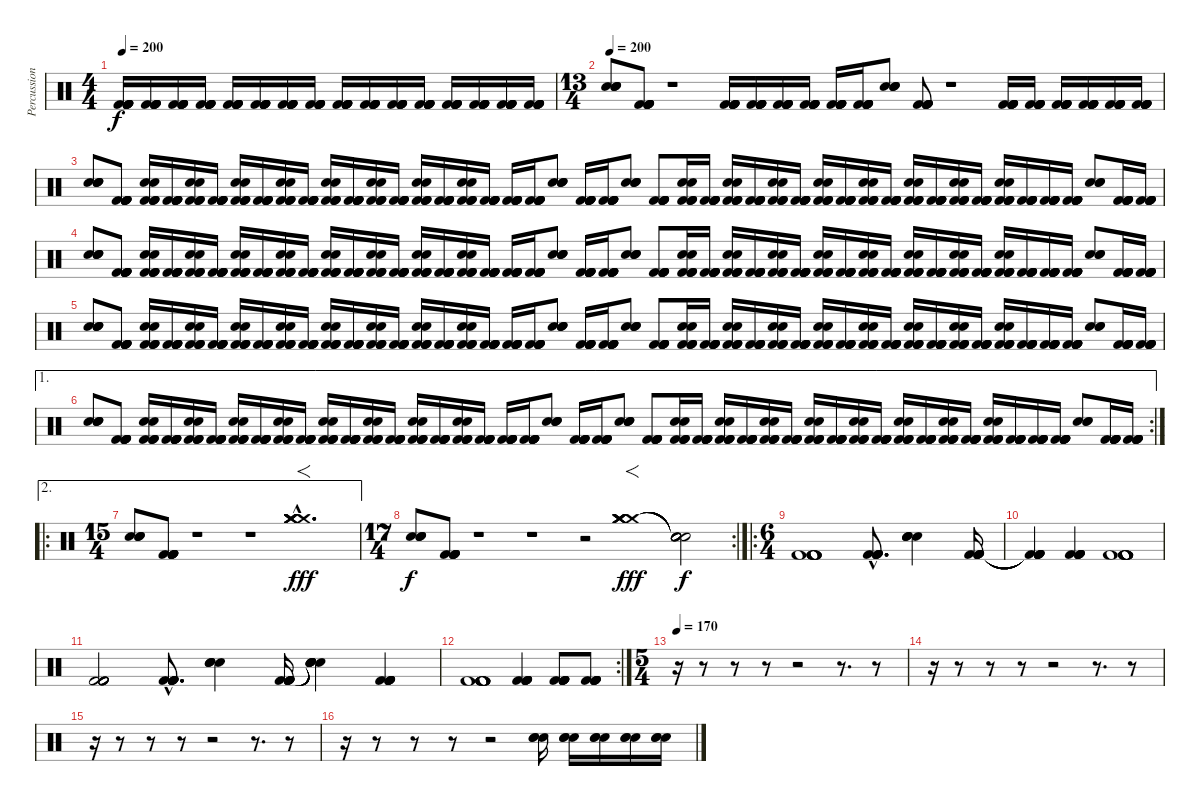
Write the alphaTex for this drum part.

\track ("Percussion" "Percussion") {instrument percussion}
\staff {score}
\articulation defaults
\ts (4 4)
\tempo 200
\clef neutral
\ks c
("Kick (hit) 2" "Kick (hit) 2" "Kick (hit) 2" "Kick (hit) 2" "Kick (hit) 2" "Kick (hit) 2").16{dy f} ("Kick (hit) 2" "Kick (hit) 2" "Kick (hit) 2" "Kick (hit) 2" "Kick (hit) 2" "Kick (hit) 2").16 ("Kick (hit) 2" "Kick (hit) 2" "Kick (hit) 2" "Kick (hit) 2" "Kick (hit) 2" "Kick (hit) 2").16 ("Kick (hit) 2" "Kick (hit) 2" "Kick (hit) 2" "Kick (hit) 2" "Kick (hit) 2" "Kick (hit) 2").16 ("Kick (hit) 2" "Kick (hit) 2" "Kick (hit) 2" "Kick (hit) 2" "Kick (hit) 2" "Kick (hit) 2").16 ("Kick (hit) 2" "Kick (hit) 2" "Kick (hit) 2" "Kick (hit) 2" "Kick (hit) 2" "Kick (hit) 2").16 ("Kick (hit) 2" "Kick (hit) 2" "Kick (hit) 2" "Kick (hit) 2" "Kick (hit) 2" "Kick (hit) 2").16 ("Kick (hit) 2" "Kick (hit) 2" "Kick (hit) 2" "Kick (hit) 2" "Kick (hit) 2" "Kick (hit) 2").16 ("Kick (hit) 2" "Kick (hit) 2" "Kick (hit) 2" "Kick (hit) 2" "Kick (hit) 2" "Kick (hit) 2").16 ("Kick (hit) 2" "Kick (hit) 2" "Kick (hit) 2" "Kick (hit) 2" "Kick (hit) 2" "Kick (hit) 2").16 ("Kick (hit) 2" "Kick (hit) 2" "Kick (hit) 2" "Kick (hit) 2" "Kick (hit) 2" "Kick (hit) 2").16 ("Kick (hit) 2" "Kick (hit) 2" "Kick (hit) 2" "Kick (hit) 2" "Kick (hit) 2" "Kick (hit) 2").16 ("Kick (hit) 2" "Kick (hit) 2" "Kick (hit) 2" "Kick (hit) 2" "Kick (hit) 2" "Kick (hit) 2").16 ("Kick (hit) 2" "Kick (hit) 2" "Kick (hit) 2" "Kick (hit) 2" "Kick (hit) 2" "Kick (hit) 2").16 ("Kick (hit) 2" "Kick (hit) 2" "Kick (hit) 2" "Kick (hit) 2" "Kick (hit) 2" "Kick (hit) 2").16 ("Kick (hit) 2" "Kick (hit) 2" "Kick (hit) 2" "Kick (hit) 2" "Kick (hit) 2" "Kick (hit) 2").16 |
\ts (13 4)
\tempo 200
("Snare (hit) 2" "Snare (hit) 2" "Snare (hit) 2" "Snare (hit) 2").8 ("Kick (hit) 2" "Kick (hit) 2" "Kick (hit) 2" "Kick (hit) 2" "Kick (hit) 2" "Kick (hit) 2").8 r.1 ("Kick (hit) 2" "Kick (hit) 2" "Kick (hit) 2" "Kick (hit) 2" "Kick (hit) 2" "Kick (hit) 2").16 ("Kick (hit) 2" "Kick (hit) 2" "Kick (hit) 2" "Kick (hit) 2" "Kick (hit) 2" "Kick (hit) 2").16 ("Kick (hit) 2" "Kick (hit) 2" "Kick (hit) 2" "Kick (hit) 2" "Kick (hit) 2" "Kick (hit) 2").16 ("Kick (hit) 2" "Kick (hit) 2" "Kick (hit) 2" "Kick (hit) 2" "Kick (hit) 2" "Kick (hit) 2").16 ("Kick (hit) 2" "Kick (hit) 2" "Kick (hit) 2" "Kick (hit) 2" "Kick (hit) 2" "Kick (hit) 2").16 ("Kick (hit) 2" "Kick (hit) 2" "Kick (hit) 2" "Kick (hit) 2" "Kick (hit) 2" "Kick (hit) 2").16 ("Snare (hit) 2" "Snare (hit) 2" "Snare (hit) 2" "Snare (hit) 2").8 ("Kick (hit) 2" "Kick (hit) 2" "Kick (hit) 2" "Kick (hit) 2" "Kick (hit) 2" "Kick (hit) 2").8 r.1 ("Kick (hit) 2" "Kick (hit) 2" "Kick (hit) 2" "Kick (hit) 2" "Kick (hit) 2" "Kick (hit) 2").16 ("Kick (hit) 2" "Kick (hit) 2" "Kick (hit) 2" "Kick (hit) 2" "Kick (hit) 2" "Kick (hit) 2").16 ("Kick (hit) 2" "Kick (hit) 2" "Kick (hit) 2" "Kick (hit) 2" "Kick (hit) 2" "Kick (hit) 2").16 ("Kick (hit) 2" "Kick (hit) 2" "Kick (hit) 2" "Kick (hit) 2" "Kick (hit) 2" "Kick (hit) 2").16 ("Kick (hit) 2" "Kick (hit) 2" "Kick (hit) 2" "Kick (hit) 2" "Kick (hit) 2" "Kick (hit) 2").16 ("Kick (hit) 2" "Kick (hit) 2" "Kick (hit) 2" "Kick (hit) 2" "Kick (hit) 2" "Kick (hit) 2").16 |
("Snare (hit) 2" "Snare (hit) 2" "Snare (hit) 2" "Snare (hit) 2").8 ("Kick (hit) 2" "Kick (hit) 2" "Kick (hit) 2" "Kick (hit) 2" "Kick (hit) 2" "Kick (hit) 2").8 ("Kick (hit) 2" "Kick (hit) 2" "Kick (hit) 2" "Kick (hit) 2" "Snare (hit) 2" "Snare (hit) 2").16 ("Kick (hit) 2" "Kick (hit) 2" "Kick (hit) 2" "Kick (hit) 2" "Kick (hit) 2" "Kick (hit) 2").16 ("Kick (hit) 2" "Kick (hit) 2" "Kick (hit) 2" "Kick (hit) 2" "Snare (hit) 2" "Snare (hit) 2").16 ("Kick (hit) 2" "Kick (hit) 2" "Kick (hit) 2" "Kick (hit) 2" "Kick (hit) 2" "Kick (hit) 2").16 ("Kick (hit) 2" "Kick (hit) 2" "Kick (hit) 2" "Kick (hit) 2" "Snare (hit) 2" "Snare (hit) 2").16 ("Kick (hit) 2" "Kick (hit) 2" "Kick (hit) 2" "Kick (hit) 2" "Kick (hit) 2" "Kick (hit) 2").16 ("Kick (hit) 2" "Kick (hit) 2" "Kick (hit) 2" "Kick (hit) 2" "Snare (hit) 2" "Snare (hit) 2").16 ("Kick (hit) 2" "Kick (hit) 2" "Kick (hit) 2" "Kick (hit) 2" "Kick (hit) 2" "Kick (hit) 2").16 ("Kick (hit) 2" "Kick (hit) 2" "Kick (hit) 2" "Kick (hit) 2" "Snare (hit) 2" "Snare (hit) 2").16 ("Kick (hit) 2" "Kick (hit) 2" "Kick (hit) 2" "Kick (hit) 2" "Kick (hit) 2" "Kick (hit) 2").16 ("Kick (hit) 2" "Kick (hit) 2" "Kick (hit) 2" "Kick (hit) 2" "Snare (hit) 2" "Snare (hit) 2").16 ("Kick (hit) 2" "Kick (hit) 2" "Kick (hit) 2" "Kick (hit) 2" "Kick (hit) 2" "Kick (hit) 2").16 ("Kick (hit) 2" "Kick (hit) 2" "Kick (hit) 2" "Kick (hit) 2" "Snare (hit) 2" "Snare (hit) 2").16 ("Kick (hit) 2" "Kick (hit) 2" "Kick (hit) 2" "Kick (hit) 2" "Kick (hit) 2" "Kick (hit) 2").16 ("Kick (hit) 2" "Kick (hit) 2" "Kick (hit) 2" "Kick (hit) 2" "Snare (hit) 2" "Snare (hit) 2").16 ("Kick (hit) 2" "Kick (hit) 2" "Kick (hit) 2" "Kick (hit) 2" "Kick (hit) 2" "Kick (hit) 2").16 ("Kick (hit) 2" "Kick (hit) 2" "Kick (hit) 2" "Kick (hit) 2" "Kick (hit) 2" "Kick (hit) 2").16 ("Kick (hit) 2" "Kick (hit) 2" "Kick (hit) 2" "Kick (hit) 2" "Kick (hit) 2" "Kick (hit) 2").16 ("Snare (hit) 2" "Snare (hit) 2" "Snare (hit) 2" "Snare (hit) 2").8 ("Kick (hit) 2" "Kick (hit) 2" "Kick (hit) 2" "Kick (hit) 2" "Kick (hit) 2" "Kick (hit) 2").16 ("Kick (hit) 2" "Kick (hit) 2" "Kick (hit) 2" "Kick (hit) 2" "Kick (hit) 2" "Kick (hit) 2").16 ("Snare (hit) 2" "Snare (hit) 2" "Snare (hit) 2" "Snare (hit) 2").8 ("Kick (hit) 2" "Kick (hit) 2" "Kick (hit) 2" "Kick (hit) 2" "Kick (hit) 2" "Kick (hit) 2").8 ("Kick (hit) 2" "Kick (hit) 2" "Kick (hit) 2" "Kick (hit) 2" "Snare (hit) 2" "Snare (hit) 2").16 ("Kick (hit) 2" "Kick (hit) 2" "Kick (hit) 2" "Kick (hit) 2" "Kick (hit) 2" "Kick (hit) 2").16 ("Kick (hit) 2" "Kick (hit) 2" "Kick (hit) 2" "Kick (hit) 2" "Snare (hit) 2" "Snare (hit) 2").16 ("Kick (hit) 2" "Kick (hit) 2" "Kick (hit) 2" "Kick (hit) 2" "Kick (hit) 2" "Kick (hit) 2").16 ("Kick (hit) 2" "Kick (hit) 2" "Kick (hit) 2" "Kick (hit) 2" "Snare (hit) 2" "Snare (hit) 2").16 ("Kick (hit) 2" "Kick (hit) 2" "Kick (hit) 2" "Kick (hit) 2" "Kick (hit) 2" "Kick (hit) 2").16 ("Kick (hit) 2" "Kick (hit) 2" "Kick (hit) 2" "Kick (hit) 2" "Snare (hit) 2" "Snare (hit) 2").16 ("Kick (hit) 2" "Kick (hit) 2" "Kick (hit) 2" "Kick (hit) 2" "Kick (hit) 2" "Kick (hit) 2").16 ("Kick (hit) 2" "Kick (hit) 2" "Kick (hit) 2" "Kick (hit) 2" "Snare (hit) 2" "Snare (hit) 2").16 ("Kick (hit) 2" "Kick (hit) 2" "Kick (hit) 2" "Kick (hit) 2" "Kick (hit) 2" "Kick (hit) 2").16 ("Kick (hit) 2" "Kick (hit) 2" "Kick (hit) 2" "Kick (hit) 2" "Snare (hit) 2" "Snare (hit) 2").16 ("Kick (hit) 2" "Kick (hit) 2" "Kick (hit) 2" "Kick (hit) 2" "Kick (hit) 2" "Kick (hit) 2").16 ("Kick (hit) 2" "Kick (hit) 2" "Kick (hit) 2" "Kick (hit) 2" "Snare (hit) 2" "Snare (hit) 2").16 ("Kick (hit) 2" "Kick (hit) 2" "Kick (hit) 2" "Kick (hit) 2" "Kick (hit) 2" "Kick (hit) 2").16 ("Kick (hit) 2" "Kick (hit) 2" "Kick (hit) 2" "Kick (hit) 2" "Snare (hit) 2" "Snare (hit) 2").16 ("Kick (hit) 2" "Kick (hit) 2" "Kick (hit) 2" "Kick (hit) 2" "Kick (hit) 2" "Kick (hit) 2").16 ("Kick (hit) 2" "Kick (hit) 2" "Kick (hit) 2" "Kick (hit) 2" "Kick (hit) 2" "Kick (hit) 2").16 ("Kick (hit) 2" "Kick (hit) 2" "Kick (hit) 2" "Kick (hit) 2" "Kick (hit) 2" "Kick (hit) 2").16 ("Snare (hit) 2" "Snare (hit) 2" "Snare (hit) 2").8 ("Kick (hit) 2" "Kick (hit) 2" "Kick (hit) 2" "Kick (hit) 2" "Kick (hit) 2" "Kick (hit) 2").16 ("Kick (hit) 2" "Kick (hit) 2" "Kick (hit) 2" "Kick (hit) 2" "Kick (hit) 2" "Kick (hit) 2").16 |
("Snare (hit) 2" "Snare (hit) 2" "Snare (hit) 2" "Snare (hit) 2").8 ("Kick (hit) 2" "Kick (hit) 2" "Kick (hit) 2" "Kick (hit) 2" "Kick (hit) 2" "Kick (hit) 2").8 ("Kick (hit) 2" "Kick (hit) 2" "Kick (hit) 2" "Kick (hit) 2" "Snare (hit) 2" "Snare (hit) 2").16 ("Kick (hit) 2" "Kick (hit) 2" "Kick (hit) 2" "Kick (hit) 2" "Kick (hit) 2" "Kick (hit) 2").16 ("Kick (hit) 2" "Kick (hit) 2" "Kick (hit) 2" "Kick (hit) 2" "Snare (hit) 2" "Snare (hit) 2").16 ("Kick (hit) 2" "Kick (hit) 2" "Kick (hit) 2" "Kick (hit) 2" "Kick (hit) 2" "Kick (hit) 2").16 ("Kick (hit) 2" "Kick (hit) 2" "Kick (hit) 2" "Kick (hit) 2" "Snare (hit) 2" "Snare (hit) 2").16 ("Kick (hit) 2" "Kick (hit) 2" "Kick (hit) 2" "Kick (hit) 2" "Kick (hit) 2" "Kick (hit) 2").16 ("Kick (hit) 2" "Kick (hit) 2" "Kick (hit) 2" "Kick (hit) 2" "Snare (hit) 2" "Snare (hit) 2").16 ("Kick (hit) 2" "Kick (hit) 2" "Kick (hit) 2" "Kick (hit) 2" "Kick (hit) 2" "Kick (hit) 2").16 ("Kick (hit) 2" "Kick (hit) 2" "Kick (hit) 2" "Kick (hit) 2" "Snare (hit) 2" "Snare (hit) 2").16 ("Kick (hit) 2" "Kick (hit) 2" "Kick (hit) 2" "Kick (hit) 2" "Kick (hit) 2" "Kick (hit) 2").16 ("Kick (hit) 2" "Kick (hit) 2" "Kick (hit) 2" "Kick (hit) 2" "Snare (hit) 2" "Snare (hit) 2").16 ("Kick (hit) 2" "Kick (hit) 2" "Kick (hit) 2" "Kick (hit) 2" "Kick (hit) 2" "Kick (hit) 2").16 ("Kick (hit) 2" "Kick (hit) 2" "Kick (hit) 2" "Kick (hit) 2" "Snare (hit) 2" "Snare (hit) 2").16 ("Kick (hit) 2" "Kick (hit) 2" "Kick (hit) 2" "Kick (hit) 2" "Kick (hit) 2" "Kick (hit) 2").16 ("Kick (hit) 2" "Kick (hit) 2" "Kick (hit) 2" "Kick (hit) 2" "Snare (hit) 2" "Snare (hit) 2").16 ("Kick (hit) 2" "Kick (hit) 2" "Kick (hit) 2" "Kick (hit) 2" "Kick (hit) 2" "Kick (hit) 2").16 ("Kick (hit) 2" "Kick (hit) 2" "Kick (hit) 2" "Kick (hit) 2" "Kick (hit) 2" "Kick (hit) 2").16 ("Kick (hit) 2" "Kick (hit) 2" "Kick (hit) 2" "Kick (hit) 2" "Kick (hit) 2" "Kick (hit) 2").16 ("Snare (hit) 2" "Snare (hit) 2" "Snare (hit) 2" "Snare (hit) 2").8 ("Kick (hit) 2" "Kick (hit) 2" "Kick (hit) 2" "Kick (hit) 2" "Kick (hit) 2" "Kick (hit) 2").16 ("Kick (hit) 2" "Kick (hit) 2" "Kick (hit) 2" "Kick (hit) 2" "Kick (hit) 2" "Kick (hit) 2").16 ("Snare (hit) 2" "Snare (hit) 2" "Snare (hit) 2" "Snare (hit) 2").8 ("Kick (hit) 2" "Kick (hit) 2" "Kick (hit) 2" "Kick (hit) 2" "Kick (hit) 2" "Kick (hit) 2").8 ("Kick (hit) 2" "Kick (hit) 2" "Kick (hit) 2" "Kick (hit) 2" "Snare (hit) 2" "Snare (hit) 2").16 ("Kick (hit) 2" "Kick (hit) 2" "Kick (hit) 2" "Kick (hit) 2" "Kick (hit) 2" "Kick (hit) 2").16 ("Kick (hit) 2" "Kick (hit) 2" "Kick (hit) 2" "Kick (hit) 2" "Snare (hit) 2" "Snare (hit) 2").16 ("Kick (hit) 2" "Kick (hit) 2" "Kick (hit) 2" "Kick (hit) 2" "Kick (hit) 2" "Kick (hit) 2").16 ("Kick (hit) 2" "Kick (hit) 2" "Kick (hit) 2" "Kick (hit) 2" "Snare (hit) 2" "Snare (hit) 2").16 ("Kick (hit) 2" "Kick (hit) 2" "Kick (hit) 2" "Kick (hit) 2" "Kick (hit) 2" "Kick (hit) 2").16 ("Kick (hit) 2" "Kick (hit) 2" "Kick (hit) 2" "Kick (hit) 2" "Snare (hit) 2" "Snare (hit) 2").16 ("Kick (hit) 2" "Kick (hit) 2" "Kick (hit) 2" "Kick (hit) 2" "Kick (hit) 2" "Kick (hit) 2").16 ("Kick (hit) 2" "Kick (hit) 2" "Kick (hit) 2" "Kick (hit) 2" "Snare (hit) 2" "Snare (hit) 2").16 ("Kick (hit) 2" "Kick (hit) 2" "Kick (hit) 2" "Kick (hit) 2" "Kick (hit) 2" "Kick (hit) 2").16 ("Kick (hit) 2" "Kick (hit) 2" "Kick (hit) 2" "Kick (hit) 2" "Snare (hit) 2" "Snare (hit) 2").16 ("Kick (hit) 2" "Kick (hit) 2" "Kick (hit) 2" "Kick (hit) 2" "Kick (hit) 2" "Kick (hit) 2").16 ("Kick (hit) 2" "Kick (hit) 2" "Kick (hit) 2" "Kick (hit) 2" "Snare (hit) 2" "Snare (hit) 2").16 ("Kick (hit) 2" "Kick (hit) 2" "Kick (hit) 2" "Kick (hit) 2" "Kick (hit) 2" "Kick (hit) 2").16 ("Kick (hit) 2" "Kick (hit) 2" "Kick (hit) 2" "Kick (hit) 2" "Snare (hit) 2" "Snare (hit) 2").16 ("Kick (hit) 2" "Kick (hit) 2" "Kick (hit) 2" "Kick (hit) 2" "Kick (hit) 2" "Kick (hit) 2").16 ("Kick (hit) 2" "Kick (hit) 2" "Kick (hit) 2" "Kick (hit) 2" "Kick (hit) 2" "Kick (hit) 2").16 ("Kick (hit) 2" "Kick (hit) 2" "Kick (hit) 2" "Kick (hit) 2" "Kick (hit) 2" "Kick (hit) 2").16 ("Snare (hit) 2" "Snare (hit) 2" "Snare (hit) 2").8 ("Kick (hit) 2" "Kick (hit) 2" "Kick (hit) 2" "Kick (hit) 2" "Kick (hit) 2" "Kick (hit) 2").16 ("Kick (hit) 2" "Kick (hit) 2" "Kick (hit) 2" "Kick (hit) 2" "Kick (hit) 2" "Kick (hit) 2").16 |
("Snare (hit) 2" "Snare (hit) 2" "Snare (hit) 2" "Snare (hit) 2").8 ("Kick (hit) 2" "Kick (hit) 2" "Kick (hit) 2" "Kick (hit) 2" "Kick (hit) 2" "Kick (hit) 2").8 ("Kick (hit) 2" "Kick (hit) 2" "Kick (hit) 2" "Kick (hit) 2" "Snare (hit) 2" "Snare (hit) 2").16 ("Kick (hit) 2" "Kick (hit) 2" "Kick (hit) 2" "Kick (hit) 2" "Kick (hit) 2" "Kick (hit) 2").16 ("Kick (hit) 2" "Kick (hit) 2" "Kick (hit) 2" "Kick (hit) 2" "Snare (hit) 2" "Snare (hit) 2").16 ("Kick (hit) 2" "Kick (hit) 2" "Kick (hit) 2" "Kick (hit) 2" "Kick (hit) 2" "Kick (hit) 2").16 ("Kick (hit) 2" "Kick (hit) 2" "Kick (hit) 2" "Kick (hit) 2" "Snare (hit) 2" "Snare (hit) 2").16 ("Kick (hit) 2" "Kick (hit) 2" "Kick (hit) 2" "Kick (hit) 2" "Kick (hit) 2" "Kick (hit) 2").16 ("Kick (hit) 2" "Kick (hit) 2" "Kick (hit) 2" "Kick (hit) 2" "Snare (hit) 2" "Snare (hit) 2").16 ("Kick (hit) 2" "Kick (hit) 2" "Kick (hit) 2" "Kick (hit) 2" "Kick (hit) 2" "Kick (hit) 2").16 ("Kick (hit) 2" "Kick (hit) 2" "Kick (hit) 2" "Kick (hit) 2" "Snare (hit) 2" "Snare (hit) 2").16 ("Kick (hit) 2" "Kick (hit) 2" "Kick (hit) 2" "Kick (hit) 2" "Kick (hit) 2" "Kick (hit) 2").16 ("Kick (hit) 2" "Kick (hit) 2" "Kick (hit) 2" "Kick (hit) 2" "Snare (hit) 2" "Snare (hit) 2").16 ("Kick (hit) 2" "Kick (hit) 2" "Kick (hit) 2" "Kick (hit) 2" "Kick (hit) 2" "Kick (hit) 2").16 ("Kick (hit) 2" "Kick (hit) 2" "Kick (hit) 2" "Kick (hit) 2" "Snare (hit) 2" "Snare (hit) 2").16 ("Kick (hit) 2" "Kick (hit) 2" "Kick (hit) 2" "Kick (hit) 2" "Kick (hit) 2" "Kick (hit) 2").16 ("Kick (hit) 2" "Kick (hit) 2" "Kick (hit) 2" "Kick (hit) 2" "Snare (hit) 2" "Snare (hit) 2").16 ("Kick (hit) 2" "Kick (hit) 2" "Kick (hit) 2" "Kick (hit) 2" "Kick (hit) 2" "Kick (hit) 2").16 ("Kick (hit) 2" "Kick (hit) 2" "Kick (hit) 2" "Kick (hit) 2" "Kick (hit) 2" "Kick (hit) 2").16 ("Kick (hit) 2" "Kick (hit) 2" "Kick (hit) 2" "Kick (hit) 2" "Kick (hit) 2" "Kick (hit) 2").16 ("Snare (hit) 2" "Snare (hit) 2" "Snare (hit) 2" "Snare (hit) 2").8 ("Kick (hit) 2" "Kick (hit) 2" "Kick (hit) 2" "Kick (hit) 2" "Kick (hit) 2" "Kick (hit) 2").16 ("Kick (hit) 2" "Kick (hit) 2" "Kick (hit) 2" "Kick (hit) 2" "Kick (hit) 2" "Kick (hit) 2").16 ("Snare (hit) 2" "Snare (hit) 2" "Snare (hit) 2" "Snare (hit) 2").8 ("Kick (hit) 2" "Kick (hit) 2" "Kick (hit) 2" "Kick (hit) 2" "Kick (hit) 2" "Kick (hit) 2").8 ("Kick (hit) 2" "Kick (hit) 2" "Kick (hit) 2" "Kick (hit) 2" "Snare (hit) 2" "Snare (hit) 2").16 ("Kick (hit) 2" "Kick (hit) 2" "Kick (hit) 2" "Kick (hit) 2" "Kick (hit) 2" "Kick (hit) 2").16 ("Kick (hit) 2" "Kick (hit) 2" "Kick (hit) 2" "Kick (hit) 2" "Snare (hit) 2" "Snare (hit) 2").16 ("Kick (hit) 2" "Kick (hit) 2" "Kick (hit) 2" "Kick (hit) 2" "Kick (hit) 2" "Kick (hit) 2").16 ("Kick (hit) 2" "Kick (hit) 2" "Kick (hit) 2" "Kick (hit) 2" "Snare (hit) 2" "Snare (hit) 2").16 ("Kick (hit) 2" "Kick (hit) 2" "Kick (hit) 2" "Kick (hit) 2" "Kick (hit) 2" "Kick (hit) 2").16 ("Kick (hit) 2" "Kick (hit) 2" "Kick (hit) 2" "Kick (hit) 2" "Snare (hit) 2" "Snare (hit) 2").16 ("Kick (hit) 2" "Kick (hit) 2" "Kick (hit) 2" "Kick (hit) 2" "Kick (hit) 2" "Kick (hit) 2").16 ("Kick (hit) 2" "Kick (hit) 2" "Kick (hit) 2" "Kick (hit) 2" "Snare (hit) 2" "Snare (hit) 2").16 ("Kick (hit) 2" "Kick (hit) 2" "Kick (hit) 2" "Kick (hit) 2" "Kick (hit) 2" "Kick (hit) 2").16 ("Kick (hit) 2" "Kick (hit) 2" "Kick (hit) 2" "Kick (hit) 2" "Snare (hit) 2" "Snare (hit) 2").16 ("Kick (hit) 2" "Kick (hit) 2" "Kick (hit) 2" "Kick (hit) 2" "Kick (hit) 2" "Kick (hit) 2").16 ("Kick (hit) 2" "Kick (hit) 2" "Kick (hit) 2" "Kick (hit) 2" "Snare (hit) 2" "Snare (hit) 2").16 ("Kick (hit) 2" "Kick (hit) 2" "Kick (hit) 2" "Kick (hit) 2" "Kick (hit) 2" "Kick (hit) 2").16 ("Kick (hit) 2" "Kick (hit) 2" "Kick (hit) 2" "Kick (hit) 2" "Snare (hit) 2" "Snare (hit) 2").16 ("Kick (hit) 2" "Kick (hit) 2" "Kick (hit) 2" "Kick (hit) 2" "Kick (hit) 2" "Kick (hit) 2").16 ("Kick (hit) 2" "Kick (hit) 2" "Kick (hit) 2" "Kick (hit) 2" "Kick (hit) 2" "Kick (hit) 2").16 ("Kick (hit) 2" "Kick (hit) 2" "Kick (hit) 2" "Kick (hit) 2" "Kick (hit) 2" "Kick (hit) 2").16 ("Snare (hit) 2" "Snare (hit) 2" "Snare (hit) 2").8 ("Kick (hit) 2" "Kick (hit) 2" "Kick (hit) 2" "Kick (hit) 2" "Kick (hit) 2" "Kick (hit) 2").16 ("Kick (hit) 2" "Kick (hit) 2" "Kick (hit) 2" "Kick (hit) 2" "Kick (hit) 2" "Kick (hit) 2").16 |
\ae 1
\rc 2
("Snare (hit) 2" "Snare (hit) 2" "Snare (hit) 2" "Snare (hit) 2").8 ("Kick (hit) 2" "Kick (hit) 2" "Kick (hit) 2" "Kick (hit) 2" "Kick (hit) 2" "Kick (hit) 2").8 ("Kick (hit) 2" "Kick (hit) 2" "Kick (hit) 2" "Kick (hit) 2" "Snare (hit) 2" "Snare (hit) 2").16 ("Kick (hit) 2" "Kick (hit) 2" "Kick (hit) 2" "Kick (hit) 2" "Kick (hit) 2" "Kick (hit) 2").16 ("Kick (hit) 2" "Kick (hit) 2" "Kick (hit) 2" "Kick (hit) 2" "Snare (hit) 2" "Snare (hit) 2").16 ("Kick (hit) 2" "Kick (hit) 2" "Kick (hit) 2" "Kick (hit) 2" "Kick (hit) 2" "Kick (hit) 2").16 ("Kick (hit) 2" "Kick (hit) 2" "Kick (hit) 2" "Kick (hit) 2" "Snare (hit) 2" "Snare (hit) 2").16 ("Kick (hit) 2" "Kick (hit) 2" "Kick (hit) 2" "Kick (hit) 2" "Kick (hit) 2" "Kick (hit) 2").16 ("Kick (hit) 2" "Kick (hit) 2" "Kick (hit) 2" "Kick (hit) 2" "Snare (hit) 2" "Snare (hit) 2").16 ("Kick (hit) 2" "Kick (hit) 2" "Kick (hit) 2" "Kick (hit) 2" "Kick (hit) 2" "Kick (hit) 2").16 ("Kick (hit) 2" "Kick (hit) 2" "Kick (hit) 2" "Kick (hit) 2" "Snare (hit) 2" "Snare (hit) 2").16 ("Kick (hit) 2" "Kick (hit) 2" "Kick (hit) 2" "Kick (hit) 2" "Kick (hit) 2" "Kick (hit) 2").16 ("Kick (hit) 2" "Kick (hit) 2" "Kick (hit) 2" "Kick (hit) 2" "Snare (hit) 2" "Snare (hit) 2").16 ("Kick (hit) 2" "Kick (hit) 2" "Kick (hit) 2" "Kick (hit) 2" "Kick (hit) 2" "Kick (hit) 2").16 ("Kick (hit) 2" "Kick (hit) 2" "Kick (hit) 2" "Kick (hit) 2" "Snare (hit) 2" "Snare (hit) 2").16 ("Kick (hit) 2" "Kick (hit) 2" "Kick (hit) 2" "Kick (hit) 2" "Kick (hit) 2" "Kick (hit) 2").16 ("Kick (hit) 2" "Kick (hit) 2" "Kick (hit) 2" "Kick (hit) 2" "Snare (hit) 2" "Snare (hit) 2").16 ("Kick (hit) 2" "Kick (hit) 2" "Kick (hit) 2" "Kick (hit) 2" "Kick (hit) 2" "Kick (hit) 2").16 ("Kick (hit) 2" "Kick (hit) 2" "Kick (hit) 2" "Kick (hit) 2" "Kick (hit) 2" "Kick (hit) 2").16 ("Kick (hit) 2" "Kick (hit) 2" "Kick (hit) 2" "Kick (hit) 2" "Kick (hit) 2" "Kick (hit) 2").16 ("Snare (hit) 2" "Snare (hit) 2" "Snare (hit) 2" "Snare (hit) 2").8 ("Kick (hit) 2" "Kick (hit) 2" "Kick (hit) 2" "Kick (hit) 2" "Kick (hit) 2" "Kick (hit) 2").16 ("Kick (hit) 2" "Kick (hit) 2" "Kick (hit) 2" "Kick (hit) 2" "Kick (hit) 2" "Kick (hit) 2").16 ("Snare (hit) 2" "Snare (hit) 2" "Snare (hit) 2" "Snare (hit) 2").8 ("Kick (hit) 2" "Kick (hit) 2" "Kick (hit) 2" "Kick (hit) 2" "Kick (hit) 2" "Kick (hit) 2").8 ("Kick (hit) 2" "Kick (hit) 2" "Kick (hit) 2" "Kick (hit) 2" "Snare (hit) 2" "Snare (hit) 2").16 ("Kick (hit) 2" "Kick (hit) 2" "Kick (hit) 2" "Kick (hit) 2" "Kick (hit) 2" "Kick (hit) 2").16 ("Kick (hit) 2" "Kick (hit) 2" "Kick (hit) 2" "Kick (hit) 2" "Snare (hit) 2" "Snare (hit) 2").16 ("Kick (hit) 2" "Kick (hit) 2" "Kick (hit) 2" "Kick (hit) 2" "Kick (hit) 2" "Kick (hit) 2").16 ("Kick (hit) 2" "Kick (hit) 2" "Kick (hit) 2" "Kick (hit) 2" "Snare (hit) 2" "Snare (hit) 2").16 ("Kick (hit) 2" "Kick (hit) 2" "Kick (hit) 2" "Kick (hit) 2" "Kick (hit) 2" "Kick (hit) 2").16 ("Kick (hit) 2" "Kick (hit) 2" "Kick (hit) 2" "Kick (hit) 2" "Snare (hit) 2" "Snare (hit) 2").16 ("Kick (hit) 2" "Kick (hit) 2" "Kick (hit) 2" "Kick (hit) 2" "Kick (hit) 2" "Kick (hit) 2").16 ("Kick (hit) 2" "Kick (hit) 2" "Kick (hit) 2" "Kick (hit) 2" "Snare (hit) 2" "Snare (hit) 2").16 ("Kick (hit) 2" "Kick (hit) 2" "Kick (hit) 2" "Kick (hit) 2" "Kick (hit) 2" "Kick (hit) 2").16 ("Kick (hit) 2" "Kick (hit) 2" "Kick (hit) 2" "Kick (hit) 2" "Snare (hit) 2" "Snare (hit) 2").16 ("Kick (hit) 2" "Kick (hit) 2" "Kick (hit) 2" "Kick (hit) 2" "Kick (hit) 2" "Kick (hit) 2").16 ("Kick (hit) 2" "Kick (hit) 2" "Kick (hit) 2" "Kick (hit) 2" "Snare (hit) 2" "Snare (hit) 2").16 ("Kick (hit) 2" "Kick (hit) 2" "Kick (hit) 2" "Kick (hit) 2" "Kick (hit) 2" "Kick (hit) 2").16 ("Kick (hit) 2" "Kick (hit) 2" "Kick (hit) 2" "Kick (hit) 2" "Snare (hit) 2" "Snare (hit) 2").16 ("Kick (hit) 2" "Kick (hit) 2" "Kick (hit) 2" "Kick (hit) 2" "Kick (hit) 2" "Kick (hit) 2").16 ("Kick (hit) 2" "Kick (hit) 2" "Kick (hit) 2" "Kick (hit) 2" "Kick (hit) 2" "Kick (hit) 2").16 ("Kick (hit) 2" "Kick (hit) 2" "Kick (hit) 2" "Kick (hit) 2" "Kick (hit) 2" "Kick (hit) 2").16 ("Snare (hit) 2" "Snare (hit) 2" "Snare (hit) 2").8 ("Kick (hit) 2" "Kick (hit) 2" "Kick (hit) 2" "Kick (hit) 2" "Kick (hit) 2" "Kick (hit) 2").16 ("Kick (hit) 2" "Kick (hit) 2" "Kick (hit) 2" "Kick (hit) 2" "Kick (hit) 2" "Kick (hit) 2").16 |
\ae 2
\ro
\ts (15 4)
("Snare (hit) 2" "Snare (hit) 2" "Snare (hit) 2" "Snare (hit) 2").8 ("Kick (hit) 2" "Kick (hit) 2" "Kick (hit) 2" "Kick (hit) 2" "Kick (hit) 2" "Kick (hit) 2").8 r.1 r.1 ("Crash medium (hit)"{hac} "Crash medium (hit)"{hac} "Crash medium (hit)"{hac} "Crash medium (hit)"{hac} "Crash medium (hit)"{hac} "Crash medium (hit)"{hac}).1{f d dy fff} |
\rc 2
\ts (17 4)
("Snare (hit) 2" "Snare (hit) 2" "Snare (hit) 2" "Snare (hit) 2").8{dy f} ("Kick (hit) 2" "Kick (hit) 2" "Kick (hit) 2" "Kick (hit) 2" "Kick (hit) 2" "Kick (hit) 2").8 r.1 r.1 r.2 ("Crash medium (hit)" "Crash medium (hit)" "Crash medium (hit)" "Crash medium (hit)" "Crash medium (hit)" "Crash medium (hit)").1{f dy fff} ("Snare (hit)"{t} "Snare (hit)"{t} "Snare (hit)"{t} "Snare (hit)"{t} "Snare (hit)"{t} "Snare (hit)"{t}).2{dy f} |
\ro
\ts (6 4)
("Kick (hit) 2" "Kick (hit) 2" "Kick (hit) 2" "Kick (hit) 2" "Kick (hit) 2" "Kick (hit) 2").1 ("Kick (hit) 2"{hac} "Kick (hit) 2"{hac} "Kick (hit) 2"{hac} "Kick (hit) 2"{hac} "Kick (hit) 2"{hac} "Kick (hit) 2"{hac}).8{d} ("Snare (hit) 2" "Snare (hit) 2" "Snare (hit) 2" "Snare (hit) 2").4 ("Kick (hit) 2" "Kick (hit) 2" "Kick (hit) 2" "Kick (hit) 2" "Kick (hit) 2" "Kick (hit) 2").16 |
("Kick (hit) 2"{t} "Kick (hit) 2"{t} "Kick (hit) 2"{t} "Kick (hit) 2"{t} "Kick (hit) 2"{t} "Kick (hit) 2"{t}).4 ("Kick (hit) 2" "Kick (hit) 2" "Kick (hit) 2" "Kick (hit) 2" "Kick (hit) 2" "Kick (hit) 2").4 ("Kick (hit) 2" "Kick (hit) 2" "Kick (hit) 2" "Kick (hit) 2" "Kick (hit) 2" "Kick (hit) 2").1 |
("Kick (hit) 2" "Kick (hit) 2" "Kick (hit) 2" "Kick (hit) 2" "Kick (hit) 2" "Kick (hit) 2").2 ("Kick (hit) 2"{hac} "Kick (hit) 2"{hac} "Kick (hit) 2"{hac} "Kick (hit) 2"{hac} "Kick (hit) 2"{hac} "Kick (hit) 2"{hac}).8{d} ("Snare (hit) 2" "Snare (hit) 2" "Snare (hit) 2" "Snare (hit) 2").4 ("Kick (hit) 2" "Kick (hit) 2" "Kick (hit) 2" "Kick (hit) 2" "Kick (hit) 2" "Kick (hit) 2").16 ("Snare (hit)"{t} "Snare (hit)"{t} "Snare (hit)"{t} "Snare (hit)"{t} "Snare (hit)"{t} "Snare (hit)"{t}).4 ("Kick (hit) 2" "Kick (hit) 2" "Kick (hit) 2" "Kick (hit) 2" "Kick (hit) 2" "Kick (hit) 2").4 |
\rc 2
("Kick (hit) 2" "Kick (hit) 2" "Kick (hit) 2" "Kick (hit) 2" "Kick (hit) 2" "Kick (hit) 2").1 ("Kick (hit) 2" "Kick (hit) 2" "Kick (hit) 2" "Kick (hit) 2" "Kick (hit) 2" "Kick (hit) 2").4 ("Kick (hit) 2" "Kick (hit) 2" "Kick (hit) 2" "Kick (hit) 2" "Kick (hit) 2" "Kick (hit) 2").8 ("Kick (hit) 2" "Kick (hit) 2" "Kick (hit) 2" "Kick (hit) 2" "Kick (hit) 2" "Kick (hit) 2").8 |
\ts (5 4)
\tempo 170
r.16 r.8 r.8 r.8 r.2 r.8{d} r.8 |
r.16 r.8 r.8 r.8 r.2 r.8{d} r.8 |
r.16 r.8 r.8 r.8 r.2 r.8{d} r.8 |
r.16 r.8 r.8 r.8 r.2 ("Snare (hit) 2" "Snare (hit) 2" "Snare (hit) 2").16 ("Snare (hit) 2" "Snare (hit) 2" "Snare (hit) 2").16 ("Snare (hit) 2" "Snare (hit) 2" "Snare (hit) 2").16 ("Snare (hit) 2" "Snare (hit) 2" "Snare (hit) 2").16 ("Snare (hit) 2" "Snare (hit) 2" "Snare (hit) 2").16
